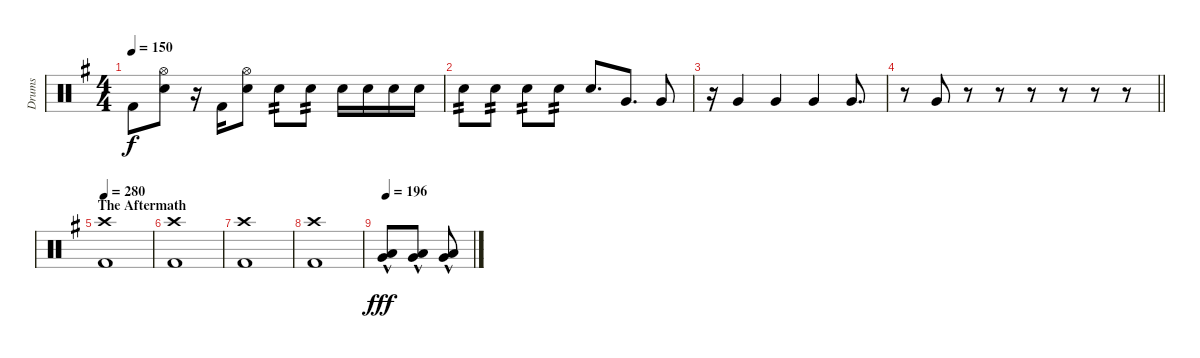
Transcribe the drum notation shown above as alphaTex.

\track ("Drums" "Drums") {instrument percussion}
\staff {score}
\articulation defaults
\ts (4 4)
\tempo 150
\clef neutral
\ks eminor "Kick (hit) 2".8{dy f}
("Hi-Hat (open)" "Electric Snare (hit)").8 r.16 "Kick (hit) 2".16 ("Hi-Hat (open)" "Electric Snare (hit)").8 "Electric Snare (hit)".8{tp 2} "Electric Snare (hit)".8{tp 2} "Electric Snare (hit)".16 "Electric Snare (hit)".16 "Electric Snare (hit)".16 "Electric Snare (hit)".16 |
"Electric Snare (hit)".8{tp 2} "Electric Snare (hit)".8{tp 2} "Electric Snare (hit)".8{tp 2} "Electric Snare (hit)".8{tp 2} "Electric Snare (hit)".8{d} "Very Low Tom (hit)".8{d} "Very Low Tom (hit)".8 |
r.16 "Very Low Tom (hit)".4 "Very Low Tom (hit)".4 "Very Low Tom (hit)".4 "Very Low Tom (hit)".8{d} |
\barLineRight lightlight
r.8 "Very Low Tom (hit)".8 r.8 r.8 r.8 r.8 r.8 r.8 |
\section ("" "The Aftermath")
\tempo 280
("Crash high (hit)" "Kick (hit) 2").1 |
("Crash high (hit)" "Kick (hit) 2").1 |
("Crash high (hit)" "Kick (hit) 2").1 |
("Crash high (hit)" "Kick (hit) 2").1 |
\tempo 196
("Low Tom (hit)"{hac} "Very Low Tom (hit)"{hac}).8{dy fff} ("Low Tom (hit)"{hac} "Very Low Tom (hit)"{hac}).8 ("Low Tom (hit)"{hac} "Very Low Tom (hit)"{hac}).8
